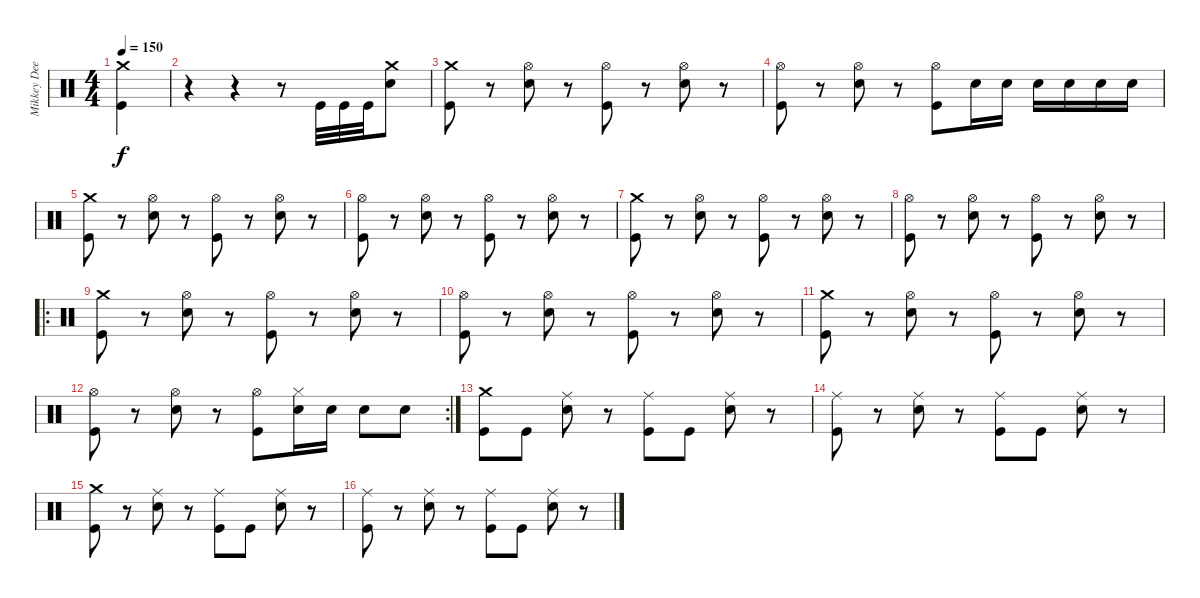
\track ("Mikkey Dee" "Mikkey Dee") {instrument percussion}
\staff {score}
\articulation defaults
\ts (4 4)
\tempo 150
\clef neutral
\ks c
("Crash medium (hit)" "Kick (hit)").4{dy f} |
r.4 r.4 r.8 "Kick (hit)".32 "Kick (hit)".32 "Kick (hit)".32 ("Crash medium (hit)" "Snare (hit) 2").8 |
("Crash medium (hit)" "Kick (hit)").8 r.8 ("Hi-Hat (open)" "Snare (hit) 2").8 r.8 ("Hi-Hat (open)" "Kick (hit)").8 r.8 ("Hi-Hat (open)" "Snare (hit) 2").8 r.8 |
("Hi-Hat (open)" "Kick (hit)").8 r.8 ("Hi-Hat (open)" "Snare (hit) 2").8 r.8 ("Hi-Hat (open)" "Kick (hit)").8 "Snare (hit) 2".16 "Snare (hit) 2".16 "Snare (hit) 2".16 "Snare (hit) 2".16 "Snare (hit) 2".16 "Snare (hit) 2".16 |
("Crash medium (hit)" "Kick (hit)").8 r.8 ("Hi-Hat (open)" "Snare (hit) 2").8 r.8 ("Hi-Hat (open)" "Kick (hit)").8 r.8 ("Hi-Hat (open)" "Snare (hit) 2").8 r.8 |
("Hi-Hat (open)" "Kick (hit)").8 r.8 ("Hi-Hat (open)" "Snare (hit) 2").8 r.8 ("Hi-Hat (open)" "Kick (hit)").8 r.8 ("Hi-Hat (open)" "Snare (hit) 2").8 r.8 |
("Crash medium (hit)" "Kick (hit)").8 r.8 ("Hi-Hat (open)" "Snare (hit) 2").8 r.8 ("Hi-Hat (open)" "Kick (hit)").8 r.8 ("Hi-Hat (open)" "Snare (hit) 2").8 r.8 |
("Hi-Hat (open)" "Kick (hit)").8 r.8 ("Hi-Hat (open)" "Snare (hit) 2").8 r.8 ("Hi-Hat (open)" "Kick (hit)").8 r.8 ("Hi-Hat (open)" "Snare (hit) 2").8 r.8 |
\ro
("Crash medium (hit)" "Kick (hit)").8 r.8 ("Hi-Hat (open)" "Snare (hit) 2").8 r.8 ("Hi-Hat (open)" "Kick (hit)").8 r.8 ("Hi-Hat (open)" "Snare (hit) 2").8 r.8 |
("Hi-Hat (open)" "Kick (hit)").8 r.8 ("Hi-Hat (open)" "Snare (hit) 2").8 r.8 ("Hi-Hat (open)" "Kick (hit)").8 r.8 ("Hi-Hat (open)" "Snare (hit) 2").8 r.8 |
("Crash medium (hit)" "Kick (hit)").8 r.8 ("Hi-Hat (open)" "Snare (hit) 2").8 r.8 ("Hi-Hat (open)" "Kick (hit)").8 r.8 ("Hi-Hat (open)" "Snare (hit) 2").8 r.8 |
\rc 2
("Hi-Hat (open)" "Kick (hit)").8 r.8 ("Hi-Hat (open)" "Snare (hit) 2").8 r.8 ("Hi-Hat (open)" "Kick (hit)").8 ("Hi-Hat (closed)" "Snare (hit) 2").16 "Snare (hit) 2".16 "Snare (hit) 2".8 "Snare (hit) 2".8 |
("Crash medium (hit)" "Kick (hit)").8 "Kick (hit)".8 ("Ride (middle)" "Snare (hit) 2").8 r.8 ("Ride (middle)" "Kick (hit)").8 "Kick (hit)".8 ("Ride (middle)" "Snare (hit) 2").8 r.8 |
("Ride (middle)" "Kick (hit)").8 r.8 ("Ride (middle)" "Snare (hit) 2").8 r.8 ("Ride (middle)" "Kick (hit)").8 "Kick (hit)".8 ("Ride (middle)" "Snare (hit) 2").8 r.8 |
("Crash medium (hit)" "Kick (hit)").8 r.8 ("Ride (middle)" "Snare (hit) 2").8 r.8 ("Ride (middle)" "Kick (hit)").8 "Kick (hit)".8 ("Ride (middle)" "Snare (hit) 2").8 r.8 |
("Ride (middle)" "Kick (hit)").8 r.8 ("Ride (middle)" "Snare (hit) 2").8 r.8 ("Ride (middle)" "Kick (hit)").8 "Kick (hit)".8 ("Ride (middle)" "Snare (hit) 2").8 r.8
